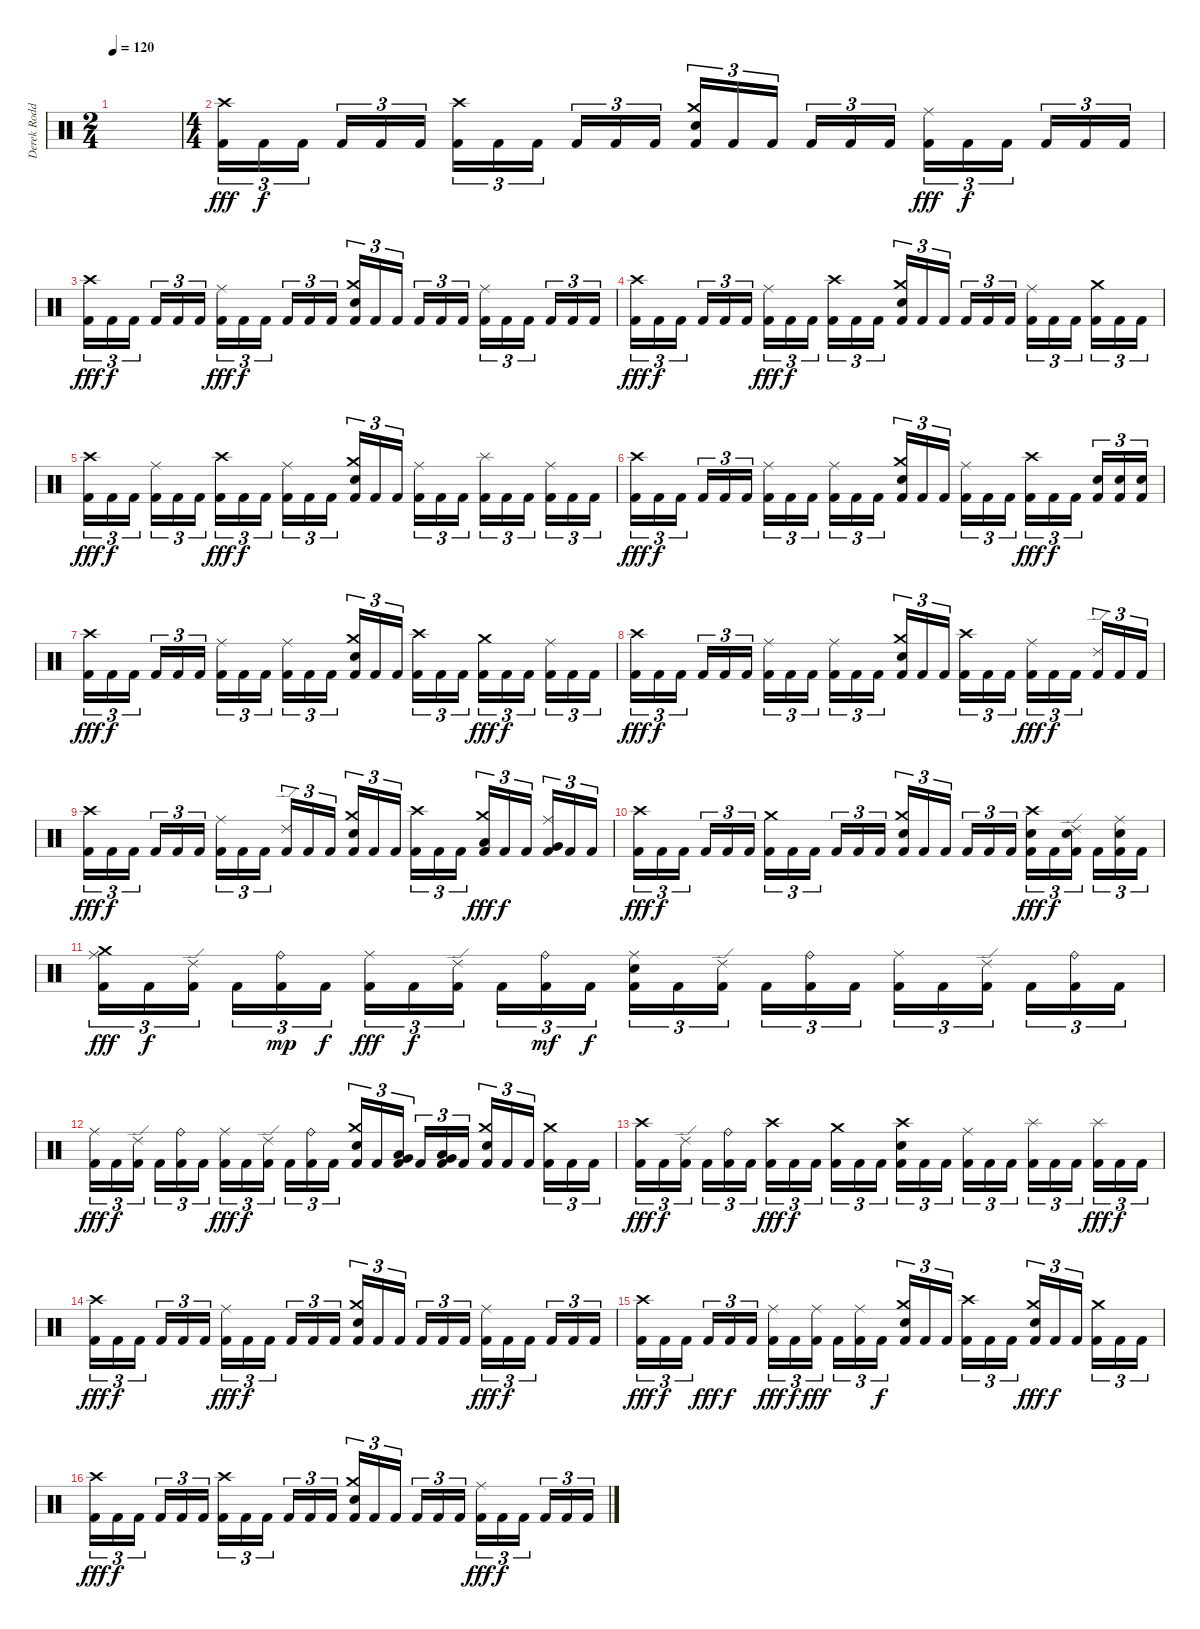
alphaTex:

\track ("Derek Roddy" "Derek Rodd") {instrument percussion}
\staff {score}
\articulation defaults
\ts (2 4)
\tempo 120
\clef neutral
\ks c
|
\ts (4 4)
("Crash high (hit)" "Kick (hit) 2").16{tu (3 2) dy fff} "Kick (hit) 2".16{tu (3 2) dy f} "Kick (hit) 2".16{tu (3 2)} "Kick (hit) 2".16{tu (3 2)} "Kick (hit) 2".16{tu (3 2)} "Kick (hit) 2".16{tu (3 2)} ("Crash high (hit)" "Kick (hit) 2").16{tu (3 2)} "Kick (hit) 2".16{tu (3 2)} "Kick (hit) 2".16{tu (3 2)} "Kick (hit) 2".16{tu (3 2)} "Kick (hit) 2".16{tu (3 2)} "Kick (hit) 2".16{tu (3 2)} ("Crash medium (hit)" "Electric Snare (hit)" "Kick (hit) 2").16{tu (3 2)} "Kick (hit) 2".16{tu (3 2)} "Kick (hit) 2".16{tu (3 2)} "Kick (hit) 2".16{tu (3 2)} "Kick (hit) 2".16{tu (3 2)} "Kick (hit) 2".16{tu (3 2)} ("Ride (middle)" "Kick (hit) 2").16{tu (3 2) dy fff} "Kick (hit) 2".16{tu (3 2) dy f} "Kick (hit) 2".16{tu (3 2)} "Kick (hit) 2".16{tu (3 2)} "Kick (hit) 2".16{tu (3 2)} "Kick (hit) 2".16{tu (3 2)} |
("Crash high (hit)" "Kick (hit) 2").16{tu (3 2) dy fff} "Kick (hit) 2".16{tu (3 2) dy f} "Kick (hit) 2".16{tu (3 2)} "Kick (hit) 2".16{tu (3 2)} "Kick (hit) 2".16{tu (3 2)} "Kick (hit) 2".16{tu (3 2)} ("Ride (middle)" "Kick (hit) 2").16{tu (3 2) dy fff} "Kick (hit) 2".16{tu (3 2) dy f} "Kick (hit) 2".16{tu (3 2)} "Kick (hit) 2".16{tu (3 2)} "Kick (hit) 2".16{tu (3 2)} "Kick (hit) 2".16{tu (3 2)} ("Crash medium (hit)" "Electric Snare (hit)" "Kick (hit) 2").16{tu (3 2)} "Kick (hit) 2".16{tu (3 2)} "Kick (hit) 2".16{tu (3 2)} "Kick (hit) 2".16{tu (3 2)} "Kick (hit) 2".16{tu (3 2)} "Kick (hit) 2".16{tu (3 2)} ("Ride (middle)" "Kick (hit) 2").16{tu (3 2)} "Kick (hit) 2".16{tu (3 2)} "Kick (hit) 2".16{tu (3 2)} "Kick (hit) 2".16{tu (3 2)} "Kick (hit) 2".16{tu (3 2)} "Kick (hit) 2".16{tu (3 2)} |
("Crash high (hit)" "Kick (hit) 2").16{tu (3 2) dy fff} "Kick (hit) 2".16{tu (3 2) dy f} "Kick (hit) 2".16{tu (3 2)} "Kick (hit) 2".16{tu (3 2)} "Kick (hit) 2".16{tu (3 2)} "Kick (hit) 2".16{tu (3 2)} ("Ride (middle)" "Kick (hit) 2").16{tu (3 2) dy fff} "Kick (hit) 2".16{tu (3 2) dy f} "Kick (hit) 2".16{tu (3 2)} ("Crash high (hit)" "Kick (hit) 2").16{tu (3 2)} "Kick (hit) 2".16{tu (3 2)} "Kick (hit) 2".16{tu (3 2)} ("Crash medium (hit)" "Electric Snare (hit)" "Kick (hit) 2").16{tu (3 2)} "Kick (hit) 2".16{tu (3 2)} "Kick (hit) 2".16{tu (3 2)} "Kick (hit) 2".16{tu (3 2)} "Kick (hit) 2".16{tu (3 2)} "Kick (hit) 2".16{tu (3 2)} ("Ride (middle)" "Kick (hit) 2").16{tu (3 2)} "Kick (hit) 2".16{tu (3 2)} "Kick (hit) 2".16{tu (3 2)} ("Crash medium (hit)" "Kick (hit) 2").16{tu (3 2)} "Kick (hit) 2".16{tu (3 2)} "Kick (hit) 2".16{tu (3 2)} |
("Crash high (hit)" "Kick (hit) 2").16{tu (3 2) dy fff} "Kick (hit) 2".16{tu (3 2) dy f} "Kick (hit) 2".16{tu (3 2)} ("Ride (middle)" "Kick (hit) 2").16{tu (3 2)} "Kick (hit) 2".16{tu (3 2)} "Kick (hit) 2".16{tu (3 2)} ("Crash high (hit)" "Kick (hit) 2").16{tu (3 2) dy fff} "Kick (hit) 2".16{tu (3 2) dy f} "Kick (hit) 2".16{tu (3 2)} ("Ride (middle)" "Kick (hit) 2").16{tu (3 2)} "Kick (hit) 2".16{tu (3 2)} "Kick (hit) 2".16{tu (3 2)} ("Crash medium (hit)" "Electric Snare (hit)" "Kick (hit) 2").16{tu (3 2)} "Kick (hit) 2".16{tu (3 2)} "Kick (hit) 2".16{tu (3 2)} ("Ride (middle)" "Kick (hit) 2").16{tu (3 2)} "Kick (hit) 2".16{tu (3 2)} "Kick (hit) 2".16{tu (3 2)} ("Splash (hit)" "Kick (hit) 2").16{tu (3 2)} "Kick (hit) 2".16{tu (3 2)} "Kick (hit) 2".16{tu (3 2)} ("Ride (middle)" "Kick (hit) 2").16{tu (3 2)} "Kick (hit) 2".16{tu (3 2)} "Kick (hit) 2".16{tu (3 2)} |
("Crash high (hit)" "Kick (hit) 2").16{tu (3 2) dy fff} "Kick (hit) 2".16{tu (3 2) dy f} "Kick (hit) 2".16{tu (3 2)} "Kick (hit) 2".16{tu (3 2)} "Kick (hit) 2".16{tu (3 2)} "Kick (hit) 2".16{tu (3 2)} ("Ride (middle)" "Kick (hit) 2").16{tu (3 2)} "Kick (hit) 2".16{tu (3 2)} "Kick (hit) 2".16{tu (3 2)} ("Ride (middle)" "Kick (hit) 2").16{tu (3 2)} "Kick (hit) 2".16{tu (3 2)} "Kick (hit) 2".16{tu (3 2)} ("Crash medium (hit)" "Electric Snare (hit)" "Kick (hit) 2").16{tu (3 2)} "Kick (hit) 2".16{tu (3 2)} "Kick (hit) 2".16{tu (3 2)} ("Ride (middle)" "Kick (hit) 2").16{tu (3 2)} "Kick (hit) 2".16{tu (3 2)} "Kick (hit) 2".16{tu (3 2)} ("Crash high (hit)" "Kick (hit) 2").16{tu (3 2) dy fff} "Kick (hit) 2".16{tu (3 2) dy f} "Kick (hit) 2".16{tu (3 2)} ("Electric Snare (hit)" "Kick (hit) 2").16{tu (3 2)} ("Electric Snare (hit)" "Kick (hit) 2").16{tu (3 2)} ("Electric Snare (hit)" "Kick (hit) 2").16{tu (3 2)} |
("Crash high (hit)" "Kick (hit) 2").16{tu (3 2) dy fff} "Kick (hit) 2".16{tu (3 2) dy f} "Kick (hit) 2".16{tu (3 2)} "Kick (hit) 2".16{tu (3 2)} "Kick (hit) 2".16{tu (3 2)} "Kick (hit) 2".16{tu (3 2)} ("Ride (middle)" "Kick (hit) 2").16{tu (3 2)} "Kick (hit) 2".16{tu (3 2)} "Kick (hit) 2".16{tu (3 2)} ("Ride (middle)" "Kick (hit) 2").16{tu (3 2)} "Kick (hit) 2".16{tu (3 2)} "Kick (hit) 2".16{tu (3 2)} ("Crash medium (hit)" "Electric Snare (hit)" "Kick (hit) 2").16{tu (3 2)} "Kick (hit) 2".16{tu (3 2)} "Kick (hit) 2".16{tu (3 2)} ("Crash high (hit)" "Kick (hit) 2").16{tu (3 2)} "Kick (hit) 2".16{tu (3 2)} "Kick (hit) 2".16{tu (3 2)} ("Crash medium (hit)" "Kick (hit) 2").16{tu (3 2) dy fff} "Kick (hit) 2".16{tu (3 2) dy f} "Kick (hit) 2".16{tu (3 2)} ("Ride (middle)" "Kick (hit) 2").16{tu (3 2)} "Kick (hit) 2".16{tu (3 2)} "Kick (hit) 2".16{tu (3 2)} |
("Crash high (hit)" "Kick (hit) 2").16{tu (3 2) dy fff} "Kick (hit) 2".16{tu (3 2) dy f} "Kick (hit) 2".16{tu (3 2)} "Kick (hit) 2".16{tu (3 2)} "Kick (hit) 2".16{tu (3 2)} "Kick (hit) 2".16{tu (3 2)} ("Ride (middle)" "Kick (hit) 2").16{tu (3 2)} "Kick (hit) 2".16{tu (3 2)} "Kick (hit) 2".16{tu (3 2)} ("Ride (middle)" "Kick (hit) 2").16{tu (3 2)} "Kick (hit) 2".16{tu (3 2)} "Kick (hit) 2".16{tu (3 2)} ("Crash medium (hit)" "Electric Snare (hit)" "Kick (hit) 2").16{tu (3 2)} "Kick (hit) 2".16{tu (3 2)} "Kick (hit) 2".16{tu (3 2)} ("Crash high (hit)" "Kick (hit) 2").16{tu (3 2)} "Kick (hit) 2".16{tu (3 2)} "Kick (hit) 2".16{tu (3 2)} ("Ride (middle)" "Kick (hit) 2").16{tu (3 2) dy fff} "Kick (hit) 2".16{tu (3 2) dy f} "Kick (hit) 2".16{tu (3 2)} ("Ride (edge) 2" "Kick (hit) 2").16{tu (3 2)} "Kick (hit) 2".16{tu (3 2)} "Kick (hit) 2".16{tu (3 2)} |
("Crash high (hit)" "Kick (hit) 2").16{tu (3 2) dy fff} "Kick (hit) 2".16{tu (3 2) dy f} "Kick (hit) 2".16{tu (3 2)} "Kick (hit) 2".16{tu (3 2)} "Kick (hit) 2".16{tu (3 2)} "Kick (hit) 2".16{tu (3 2)} ("Ride (middle)" "Kick (hit) 2").16{tu (3 2)} "Kick (hit) 2".16{tu (3 2)} "Kick (hit) 2".16{tu (3 2)} ("Ride (edge) 2" "Kick (hit) 2").16{tu (3 2)} "Kick (hit) 2".16{tu (3 2)} "Kick (hit) 2".16{tu (3 2)} ("Crash medium (hit)" "Electric Snare (hit)" "Kick (hit) 2").16{tu (3 2)} "Kick (hit) 2".16{tu (3 2)} "Kick (hit) 2".16{tu (3 2)} ("Crash high (hit)" "Kick (hit) 2").16{tu (3 2)} "Kick (hit) 2".16{tu (3 2)} "Kick (hit) 2".16{tu (3 2)} ("Crash medium (hit)" "Low Tom (hit)" "Kick (hit) 2").16{tu (3 2) dy fff} "Kick (hit) 2".16{tu (3 2) dy f} "Kick (hit) 2".16{tu (3 2)} ("Ride (middle)" "Very Low Tom (hit)" "Kick (hit) 2").16{tu (3 2)} "Kick (hit) 2".16{tu (3 2)} "Kick (hit) 2".16{tu (3 2)} |
("Crash high (hit)" "Kick (hit) 2").16{tu (3 2) dy fff} "Kick (hit) 2".16{tu (3 2) dy f} "Kick (hit) 2".16{tu (3 2)} "Kick (hit) 2".16{tu (3 2)} "Kick (hit) 2".16{tu (3 2)} "Kick (hit) 2".16{tu (3 2)} ("Crash medium (hit)" "Kick (hit) 2").16{tu (3 2)} "Kick (hit) 2".16{tu (3 2)} "Kick (hit) 2".16{tu (3 2)} "Kick (hit) 2".16{tu (3 2)} "Kick (hit) 2".16{tu (3 2)} "Kick (hit) 2".16{tu (3 2)} ("Crash medium (hit)" "Electric Snare (hit)" "Kick (hit) 2").16{tu (3 2)} "Kick (hit) 2".16{tu (3 2)} "Kick (hit) 2".16{tu (3 2)} "Kick (hit) 2".16{tu (3 2)} "Kick (hit) 2".16{tu (3 2)} "Kick (hit) 2".16{tu (3 2)} ("Crash high (hit)" "Electric Snare (hit)" "Kick (hit) 2").16{tu (3 2) dy fff} "Kick (hit) 2".16{tu (3 2) dy f} ("Ride (edge) 2" "Electric Snare (hit)" "Kick (hit) 2").16{tu (3 2)} "Kick (hit) 2".16{tu (3 2)} ("Ride (middle)" "Electric Snare (hit)" "Kick (hit) 2").16{tu (3 2)} "Kick (hit) 2".16{tu (3 2)} |
("Crash medium (hit)" "Ride (middle)" "Kick (hit) 2").16{tu (3 2) dy fff} "Kick (hit) 2".16{tu (3 2) dy f} ("Ride (edge) 2" "Kick (hit) 2").16{tu (3 2)} "Kick (hit) 2".16{tu (3 2)} ("Ride (bell)" "Kick (hit) 2").16{tu (3 2) dy mp} "Kick (hit) 2".16{tu (3 2) dy f} ("Ride (middle)" "Kick (hit) 2").16{tu (3 2) dy fff} "Kick (hit) 2".16{tu (3 2) dy f} ("Ride (edge) 2" "Kick (hit) 2").16{tu (3 2)} "Kick (hit) 2".16{tu (3 2)} ("Ride (bell)" "Kick (hit) 2").16{tu (3 2) dy mf} "Kick (hit) 2".16{tu (3 2) dy f} ("Ride (middle)" "Electric Snare (hit)" "Kick (hit) 2").16{tu (3 2)} "Kick (hit) 2".16{tu (3 2)} ("Ride (edge) 2" "Kick (hit) 2").16{tu (3 2)} "Kick (hit) 2".16{tu (3 2)} ("Ride (bell)" "Kick (hit) 2").16{tu (3 2)} "Kick (hit) 2".16{tu (3 2)} ("Ride (middle)" "Kick (hit) 2").16{tu (3 2)} "Kick (hit) 2".16{tu (3 2)} ("Ride (edge) 2" "Kick (hit) 2").16{tu (3 2)} "Kick (hit) 2".16{tu (3 2)} ("Ride (bell)" "Kick (hit) 2").16{tu (3 2)} "Kick (hit) 2".16{tu (3 2)} |
("Ride (middle)" "Kick (hit) 2").16{tu (3 2) dy fff} "Kick (hit) 2".16{tu (3 2) dy f} ("Ride (edge) 2" "Kick (hit) 2").16{tu (3 2)} "Kick (hit) 2".16{tu (3 2)} ("Ride (bell)" "Kick (hit) 2").16{tu (3 2)} "Kick (hit) 2".16{tu (3 2)} ("Ride (middle)" "Kick (hit) 2").16{tu (3 2) dy fff} "Kick (hit) 2".16{tu (3 2) dy f} ("Ride (edge) 2" "Kick (hit) 2").16{tu (3 2)} "Kick (hit) 2".16{tu (3 2)} ("Ride (bell)" "Kick (hit) 2").16{tu (3 2)} "Kick (hit) 2".16{tu (3 2)} ("Crash medium (hit)" "Electric Snare (hit)" "Kick (hit) 2").16{tu (3 2)} "Kick (hit) 2".16{tu (3 2)} ("Low Tom (hit)" "Very Low Tom (hit)" "Kick (hit) 2").16{tu (3 2)} "Kick (hit) 2".16{tu (3 2)} ("Very Low Tom (hit)" "Low Floor Tom (hit)" "Kick (hit) 2").16{tu (3 2)} "Kick (hit) 2".16{tu (3 2)} ("Crash medium (hit)" "Electric Snare (hit)" "Kick (hit) 2").16{tu (3 2)} "Kick (hit) 2".16{tu (3 2)} "Kick (hit) 2".16{tu (3 2)} ("Crash medium (hit)" "Kick (hit) 2").16{tu (3 2)} "Kick (hit) 2".16{tu (3 2)} "Kick (hit) 2".16{tu (3 2)} |
("Crash high (hit)" "Kick (hit) 2").16{tu (3 2) dy fff} "Kick (hit) 2".16{tu (3 2) dy f} ("Ride (edge) 2" "Kick (hit) 2").16{tu (3 2)} "Kick (hit) 2".16{tu (3 2)} ("Ride (bell)" "Kick (hit) 2").16{tu (3 2)} "Kick (hit) 2".16{tu (3 2)} ("Crash high (hit)" "Kick (hit) 2").16{tu (3 2) dy fff} "Kick (hit) 2".16{tu (3 2) dy f} "Kick (hit) 2".16{tu (3 2)} ("Crash medium (hit)" "Kick (hit) 2").16{tu (3 2)} "Kick (hit) 2".16{tu (3 2)} "Kick (hit) 2".16{tu (3 2)} ("Crash high (hit)" "Electric Snare (hit)" "Kick (hit) 2").16{tu (3 2)} "Kick (hit) 2".16{tu (3 2)} "Kick (hit) 2".16{tu (3 2)} ("Ride (middle)" "Kick (hit) 2").16{tu (3 2)} "Kick (hit) 2".16{tu (3 2)} "Kick (hit) 2".16{tu (3 2)} ("Splash (hit)" "Kick (hit) 2").16{tu (3 2)} "Kick (hit) 2".16{tu (3 2)} "Kick (hit) 2".16{tu (3 2)} ("Splash (hit)" "Kick (hit) 2").16{tu (3 2) dy fff} "Kick (hit) 2".16{tu (3 2) dy f} "Kick (hit) 2".16{tu (3 2)} |
("Crash high (hit)" "Kick (hit) 2").16{tu (3 2) dy fff} "Kick (hit) 2".16{tu (3 2) dy f} "Kick (hit) 2".16{tu (3 2)} "Kick (hit) 2".16{tu (3 2)} "Kick (hit) 2".16{tu (3 2)} "Kick (hit) 2".16{tu (3 2)} ("Ride (middle)" "Kick (hit) 2").16{tu (3 2) dy fff} "Kick (hit) 2".16{tu (3 2) dy f} "Kick (hit) 2".16{tu (3 2)} "Kick (hit) 2".16{tu (3 2)} "Kick (hit) 2".16{tu (3 2)} "Kick (hit) 2".16{tu (3 2)} ("Crash medium (hit)" "Electric Snare (hit)" "Kick (hit) 2").16{tu (3 2)} "Kick (hit) 2".16{tu (3 2)} "Kick (hit) 2".16{tu (3 2)} "Kick (hit) 2".16{tu (3 2)} "Kick (hit) 2".16{tu (3 2)} "Kick (hit) 2".16{tu (3 2)} ("Ride (middle)" "Kick (hit) 2").16{tu (3 2) dy fff} "Kick (hit) 2".16{tu (3 2) dy f} "Kick (hit) 2".16{tu (3 2)} "Kick (hit) 2".16{tu (3 2)} "Kick (hit) 2".16{tu (3 2)} "Kick (hit) 2".16{tu (3 2)} |
("Crash high (hit)" "Kick (hit) 2").16{tu (3 2) dy fff} "Kick (hit) 2".16{tu (3 2) dy f} "Kick (hit) 2".16{tu (3 2)} "Kick (hit) 2".16{tu (3 2) dy fff} "Kick (hit) 2".16{tu (3 2) dy f} "Kick (hit) 2".16{tu (3 2)} ("Ride (middle)" "Kick (hit) 2").16{tu (3 2) dy fff} "Kick (hit) 2".16{tu (3 2) dy f} ("Ride (middle)" "Kick (hit) 2").16{tu (3 2) dy fff} "Kick (hit) 2".16{tu (3 2)} ("Ride (middle)" "Kick (hit) 2").16{tu (3 2)} "Kick (hit) 2".16{tu (3 2) dy f} ("Crash medium (hit)" "Electric Snare (hit)" "Kick (hit) 2").16{tu (3 2)} "Kick (hit) 2".16{tu (3 2)} "Kick (hit) 2".16{tu (3 2)} ("Crash high (hit)" "Kick (hit) 2").16{tu (3 2)} "Kick (hit) 2".16{tu (3 2)} "Kick (hit) 2".16{tu (3 2)} ("Crash medium (hit)" "Electric Snare (hit)" "Kick (hit) 2").16{tu (3 2) dy fff} "Kick (hit) 2".16{tu (3 2) dy f} "Kick (hit) 2".16{tu (3 2)} ("Crash medium (hit)" "Kick (hit) 2").16{tu (3 2)} "Kick (hit) 2".16{tu (3 2)} "Kick (hit) 2".16{tu (3 2)} |
("Crash high (hit)" "Kick (hit) 2").16{tu (3 2) dy fff} "Kick (hit) 2".16{tu (3 2) dy f} "Kick (hit) 2".16{tu (3 2)} "Kick (hit) 2".16{tu (3 2)} "Kick (hit) 2".16{tu (3 2)} "Kick (hit) 2".16{tu (3 2)} ("Crash high (hit)" "Kick (hit) 2").16{tu (3 2)} "Kick (hit) 2".16{tu (3 2)} "Kick (hit) 2".16{tu (3 2)} "Kick (hit) 2".16{tu (3 2)} "Kick (hit) 2".16{tu (3 2)} "Kick (hit) 2".16{tu (3 2)} ("Crash medium (hit)" "Electric Snare (hit)" "Kick (hit) 2").16{tu (3 2)} "Kick (hit) 2".16{tu (3 2)} "Kick (hit) 2".16{tu (3 2)} "Kick (hit) 2".16{tu (3 2)} "Kick (hit) 2".16{tu (3 2)} "Kick (hit) 2".16{tu (3 2)} ("Ride (middle)" "Kick (hit) 2").16{tu (3 2) dy fff} "Kick (hit) 2".16{tu (3 2) dy f} "Kick (hit) 2".16{tu (3 2)} "Kick (hit) 2".16{tu (3 2)} "Kick (hit) 2".16{tu (3 2)} "Kick (hit) 2".16{tu (3 2)}
